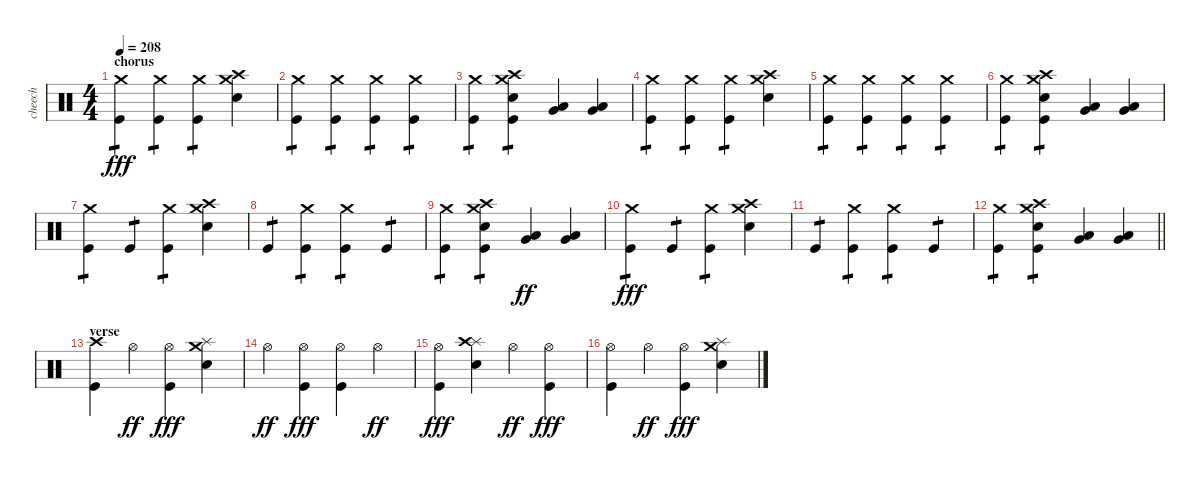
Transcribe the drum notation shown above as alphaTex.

\track ("cheech" "cheech") {instrument percussion}
\staff {score}
\articulation defaults
\ts (4 4)
\section ("" "chorus")
\tempo 208
\clef neutral
\ks c
("Crash medium (hit)" "Kick (hit)").4{tp 1 dy fff} ("Crash medium (hit)" "Kick (hit)").4{tp 1} ("Crash medium (hit)" "Kick (hit)").4{tp 1} ("Crash medium (hit)" "Crash high (hit)" "Electric Snare (hit)").4 |
("Crash medium (hit)" "Kick (hit)").4{tp 1} ("Crash medium (hit)" "Kick (hit)").4{tp 1} ("Crash medium (hit)" "Kick (hit)").4{tp 1} ("Crash medium (hit)" "Kick (hit)").4{tp 1} |
("Crash medium (hit)" "Kick (hit)").4{tp 1} ("Crash medium (hit)" "Crash high (hit)" "Electric Snare (hit)" "Kick (hit)").4{tp 1} ("Low Tom (hit)" "Very Low Tom (hit)").4 ("Very Low Tom (hit)" "Low Floor Tom (hit)").4 |
("Crash medium (hit)" "Kick (hit)").4{tp 1} ("Crash medium (hit)" "Kick (hit)").4{tp 1} ("Crash medium (hit)" "Kick (hit)").4{tp 1} ("Crash medium (hit)" "Crash high (hit)" "Electric Snare (hit)").4 |
("Crash medium (hit)" "Kick (hit)").4{tp 1} ("Crash medium (hit)" "Kick (hit)").4{tp 1} ("Crash medium (hit)" "Kick (hit)").4{tp 1} ("Crash medium (hit)" "Kick (hit)").4{tp 1} |
("Crash medium (hit)" "Kick (hit)").4{tp 1} ("Crash medium (hit)" "Crash high (hit)" "Electric Snare (hit)" "Kick (hit)").4{tp 1} ("Low Tom (hit)" "Very Low Tom (hit)").4 ("Very Low Tom (hit)" "Low Floor Tom (hit)").4 |
("Crash medium (hit)" "Kick (hit)").4{tp 1} "Kick (hit)".4{tp 1} ("Crash medium (hit)" "Kick (hit)").4{tp 1} ("Crash medium (hit)" "Crash high (hit)" "Electric Snare (hit)").4 |
"Kick (hit)".4{tp 1} ("Crash medium (hit)" "Kick (hit)").4{tp 1} ("Crash medium (hit)" "Kick (hit)").4{tp 1} "Kick (hit)".4{tp 1} |
("Crash medium (hit)" "Kick (hit)").4{tp 1} ("Crash medium (hit)" "Crash high (hit)" "Electric Snare (hit)" "Kick (hit)").4{tp 1} ("Low Tom (hit)" "Very Low Tom (hit)").4{dy ff} ("Very Low Tom (hit)" "Low Floor Tom (hit)").4 |
("Crash medium (hit)" "Kick (hit)").4{tp 1 dy fff} "Kick (hit)".4{tp 1} ("Crash medium (hit)" "Kick (hit)").4{tp 1} ("Crash medium (hit)" "Crash high (hit)" "Electric Snare (hit)").4 |
"Kick (hit)".4{tp 1} ("Crash medium (hit)" "Kick (hit)").4{tp 1} ("Crash medium (hit)" "Kick (hit)").4{tp 1} "Kick (hit)".4{tp 1} |
\barLineRight lightlight
("Crash medium (hit)" "Kick (hit)").4{tp 1} ("Crash medium (hit)" "Crash high (hit)" "Electric Snare (hit)" "Kick (hit)").4{tp 1} ("Low Tom (hit)" "Very Low Tom (hit)").4 ("Very Low Tom (hit)" "Low Floor Tom (hit)").4 |
\section ("" "verse")
("Crash high (hit)" "Kick (hit)").4 "Hi-Hat (open)".4{dy ff} ("Hi-Hat (open)" "Kick (hit)").4{dy fff} ("Splash (hit)" "Crash medium (hit)" "Electric Snare (hit)").4 |
"Hi-Hat (open)".4{dy ff} ("Hi-Hat (open)" "Kick (hit)").4{dy fff} ("Hi-Hat (open)" "Kick (hit)").4 "Hi-Hat (open)".4{dy ff} |
("Hi-Hat (open)" "Kick (hit)").4{dy fff} ("Splash (hit)" "Crash high (hit)" "Electric Snare (hit)").4 "Hi-Hat (open)".4{dy ff} ("Hi-Hat (open)" "Kick (hit)").4{dy fff} |
("Hi-Hat (open)" "Kick (hit)").4 "Hi-Hat (open)".4{dy ff} ("Hi-Hat (open)" "Kick (hit)").4{dy fff} ("Splash (hit)" "Crash medium (hit)" "Electric Snare (hit)").4
